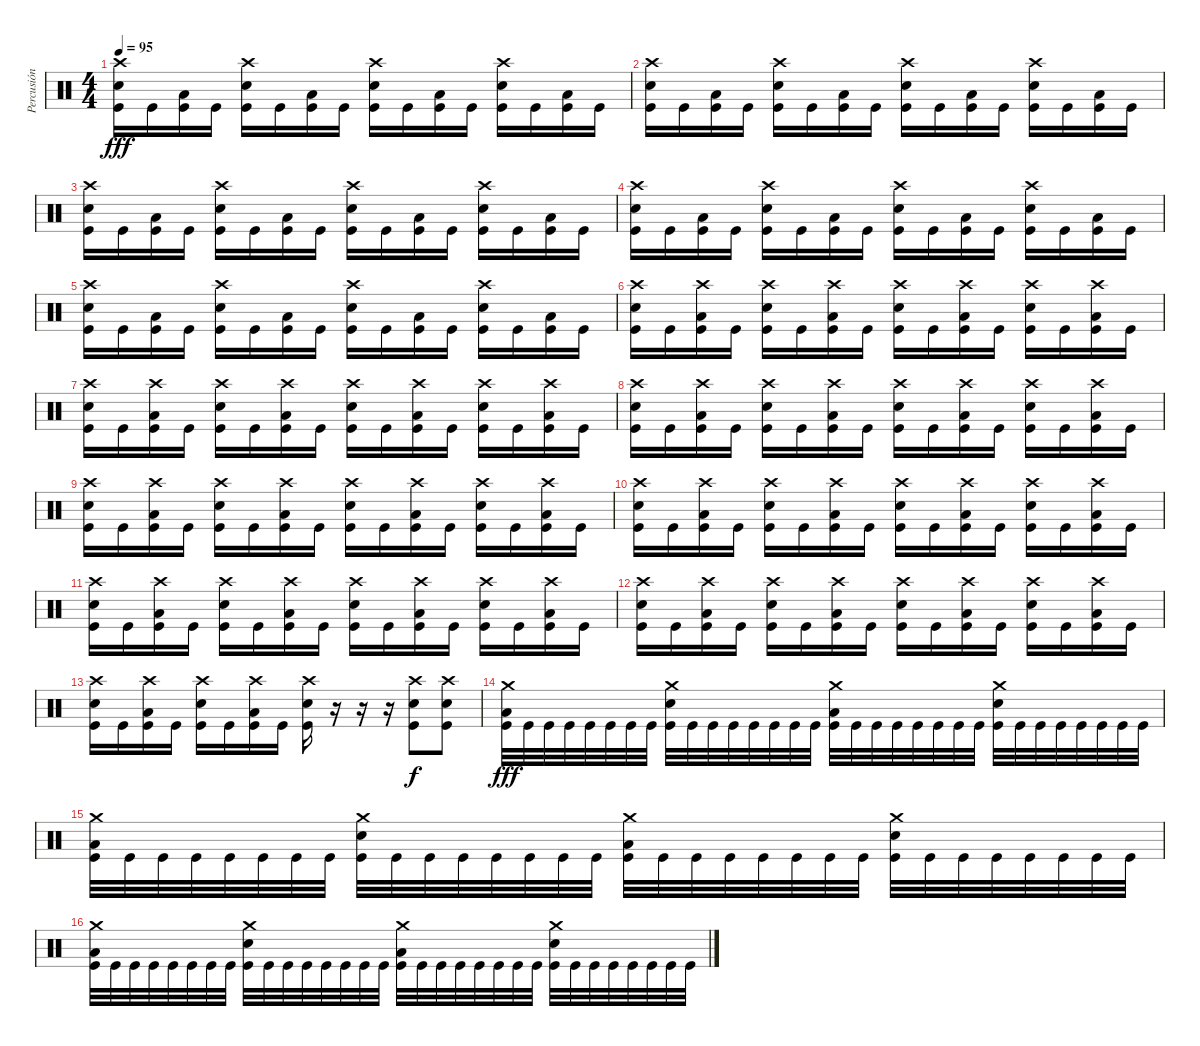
\track ("Percusión" "Percusión") {instrument percussion}
\staff {score}
\articulation defaults
\ts (4 4)
\tempo 95
\clef neutral
\ks c
("Crash high (hit)" "Snare (hit) 2" "Kick (hit)").16{dy fff} "Kick (hit)".16 ("Low Floor Tom (hit)" "Kick (hit)").16 "Kick (hit)".16 ("Crash high (hit)" "Snare (hit) 2" "Kick (hit)").16 "Kick (hit)".16 ("Low Floor Tom (hit)" "Kick (hit)").16 "Kick (hit)".16 ("Crash high (hit)" "Snare (hit) 2" "Kick (hit)").16 "Kick (hit)".16 ("Low Floor Tom (hit)" "Kick (hit)").16 "Kick (hit)".16 ("Crash high (hit)" "Snare (hit) 2" "Kick (hit)").16 "Kick (hit)".16 ("Low Floor Tom (hit)" "Kick (hit)").16 "Kick (hit)".16 |
("Crash high (hit)" "Snare (hit) 2" "Kick (hit)").16 "Kick (hit)".16 ("Low Floor Tom (hit)" "Kick (hit)").16 "Kick (hit)".16 ("Crash high (hit)" "Snare (hit) 2" "Kick (hit)").16 "Kick (hit)".16 ("Low Floor Tom (hit)" "Kick (hit)").16 "Kick (hit)".16 ("Crash high (hit)" "Snare (hit) 2" "Kick (hit)").16 "Kick (hit)".16 ("Low Floor Tom (hit)" "Kick (hit)").16 "Kick (hit)".16 ("Crash high (hit)" "Snare (hit) 2" "Kick (hit)").16 "Kick (hit)".16 ("Low Floor Tom (hit)" "Kick (hit)").16 "Kick (hit)".16 |
("Crash high (hit)" "Snare (hit) 2" "Kick (hit)").16 "Kick (hit)".16 ("Low Floor Tom (hit)" "Kick (hit)").16 "Kick (hit)".16 ("Crash high (hit)" "Snare (hit) 2" "Kick (hit)").16 "Kick (hit)".16 ("Low Floor Tom (hit)" "Kick (hit)").16 "Kick (hit)".16 ("Crash high (hit)" "Snare (hit) 2" "Kick (hit)").16 "Kick (hit)".16 ("Low Floor Tom (hit)" "Kick (hit)").16 "Kick (hit)".16 ("Crash high (hit)" "Snare (hit) 2" "Kick (hit)").16 "Kick (hit)".16 ("Low Floor Tom (hit)" "Kick (hit)").16 "Kick (hit)".16 |
("Crash high (hit)" "Snare (hit) 2" "Kick (hit)").16 "Kick (hit)".16 ("Low Floor Tom (hit)" "Kick (hit)").16 "Kick (hit)".16 ("Crash high (hit)" "Snare (hit) 2" "Kick (hit)").16 "Kick (hit)".16 ("Low Floor Tom (hit)" "Kick (hit)").16 "Kick (hit)".16 ("Crash high (hit)" "Snare (hit) 2" "Kick (hit)").16 "Kick (hit)".16 ("Low Floor Tom (hit)" "Kick (hit)").16 "Kick (hit)".16 ("Crash high (hit)" "Snare (hit) 2" "Kick (hit)").16 "Kick (hit)".16 ("Low Floor Tom (hit)" "Kick (hit)").16 "Kick (hit)".16 |
("Crash high (hit)" "Snare (hit) 2" "Kick (hit)").16 "Kick (hit)".16 ("Low Floor Tom (hit)" "Kick (hit)").16 "Kick (hit)".16 ("Crash high (hit)" "Snare (hit) 2" "Kick (hit)").16 "Kick (hit)".16 ("Low Floor Tom (hit)" "Kick (hit)").16 "Kick (hit)".16 ("Crash high (hit)" "Snare (hit) 2" "Kick (hit)").16 "Kick (hit)".16 ("Low Floor Tom (hit)" "Kick (hit)").16 "Kick (hit)".16 ("Crash high (hit)" "Snare (hit) 2" "Kick (hit)").16 "Kick (hit)".16 ("Low Floor Tom (hit)" "Kick (hit)").16 "Kick (hit)".16 |
("Crash high (hit)" "Snare (hit) 2" "Kick (hit)").16 "Kick (hit)".16 ("Crash high (hit)" "Low Floor Tom (hit)" "Kick (hit)").16 "Kick (hit)".16 ("Crash high (hit)" "Snare (hit) 2" "Kick (hit)").16 "Kick (hit)".16 ("Crash high (hit)" "Low Floor Tom (hit)" "Kick (hit)").16 "Kick (hit)".16 ("Crash high (hit)" "Snare (hit) 2" "Kick (hit)").16 "Kick (hit)".16 ("Crash high (hit)" "Low Floor Tom (hit)" "Kick (hit)").16 "Kick (hit)".16 ("Crash high (hit)" "Snare (hit) 2" "Kick (hit)").16 "Kick (hit)".16 ("Crash high (hit)" "Low Floor Tom (hit)" "Kick (hit)").16 "Kick (hit)".16 |
("Crash high (hit)" "Snare (hit) 2" "Kick (hit)").16 "Kick (hit)".16 ("Crash high (hit)" "Low Floor Tom (hit)" "Kick (hit)").16 "Kick (hit)".16 ("Crash high (hit)" "Snare (hit) 2" "Kick (hit)").16 "Kick (hit)".16 ("Crash high (hit)" "Low Floor Tom (hit)" "Kick (hit)").16 "Kick (hit)".16 ("Crash high (hit)" "Snare (hit) 2" "Kick (hit)").16 "Kick (hit)".16 ("Crash high (hit)" "Low Floor Tom (hit)" "Kick (hit)").16 "Kick (hit)".16 ("Crash high (hit)" "Snare (hit) 2" "Kick (hit)").16 "Kick (hit)".16 ("Crash high (hit)" "Low Floor Tom (hit)" "Kick (hit)").16 "Kick (hit)".16 |
("Crash high (hit)" "Snare (hit) 2" "Kick (hit)").16 "Kick (hit)".16 ("Crash high (hit)" "Low Floor Tom (hit)" "Kick (hit)").16 "Kick (hit)".16 ("Crash high (hit)" "Snare (hit) 2" "Kick (hit)").16 "Kick (hit)".16 ("Crash high (hit)" "Low Floor Tom (hit)" "Kick (hit)").16 "Kick (hit)".16 ("Crash high (hit)" "Snare (hit) 2" "Kick (hit)").16 "Kick (hit)".16 ("Crash high (hit)" "Low Floor Tom (hit)" "Kick (hit)").16 "Kick (hit)".16 ("Crash high (hit)" "Snare (hit) 2" "Kick (hit)").16 "Kick (hit)".16 ("Crash high (hit)" "Low Floor Tom (hit)" "Kick (hit)").16 "Kick (hit)".16 |
("Crash high (hit)" "Snare (hit) 2" "Kick (hit)").16 "Kick (hit)".16 ("Crash high (hit)" "Low Floor Tom (hit)" "Kick (hit)").16 "Kick (hit)".16 ("Crash high (hit)" "Snare (hit) 2" "Kick (hit)").16 "Kick (hit)".16 ("Crash high (hit)" "Low Floor Tom (hit)" "Kick (hit)").16 "Kick (hit)".16 ("Crash high (hit)" "Snare (hit) 2" "Kick (hit)").16 "Kick (hit)".16 ("Crash high (hit)" "Low Floor Tom (hit)" "Kick (hit)").16 "Kick (hit)".16 ("Crash high (hit)" "Snare (hit) 2" "Kick (hit)").16 "Kick (hit)".16 ("Crash high (hit)" "Low Floor Tom (hit)" "Kick (hit)").16 "Kick (hit)".16 |
("Crash high (hit)" "Snare (hit) 2" "Kick (hit)").16 "Kick (hit)".16 ("Crash high (hit)" "Low Floor Tom (hit)" "Kick (hit)").16 "Kick (hit)".16 ("Crash high (hit)" "Snare (hit) 2" "Kick (hit)").16 "Kick (hit)".16 ("Crash high (hit)" "Low Floor Tom (hit)" "Kick (hit)").16 "Kick (hit)".16 ("Crash high (hit)" "Snare (hit) 2" "Kick (hit)").16 "Kick (hit)".16 ("Crash high (hit)" "Low Floor Tom (hit)" "Kick (hit)").16 "Kick (hit)".16 ("Crash high (hit)" "Snare (hit) 2" "Kick (hit)").16 "Kick (hit)".16 ("Crash high (hit)" "Low Floor Tom (hit)" "Kick (hit)").16 "Kick (hit)".16 |
("Crash high (hit)" "Snare (hit) 2" "Kick (hit)").16 "Kick (hit)".16 ("Crash high (hit)" "Low Floor Tom (hit)" "Kick (hit)").16 "Kick (hit)".16 ("Crash high (hit)" "Snare (hit) 2" "Kick (hit)").16 "Kick (hit)".16 ("Crash high (hit)" "Low Floor Tom (hit)" "Kick (hit)").16 "Kick (hit)".16 ("Crash high (hit)" "Snare (hit) 2" "Kick (hit)").16 "Kick (hit)".16 ("Crash high (hit)" "Low Floor Tom (hit)" "Kick (hit)").16 "Kick (hit)".16 ("Crash high (hit)" "Snare (hit) 2" "Kick (hit)").16 "Kick (hit)".16 ("Crash high (hit)" "Low Floor Tom (hit)" "Kick (hit)").16 "Kick (hit)".16 |
("Crash high (hit)" "Snare (hit) 2" "Kick (hit)").16 "Kick (hit)".16 ("Crash high (hit)" "Low Floor Tom (hit)" "Kick (hit)").16 "Kick (hit)".16 ("Crash high (hit)" "Snare (hit) 2" "Kick (hit)").16 "Kick (hit)".16 ("Crash high (hit)" "Low Floor Tom (hit)" "Kick (hit)").16 "Kick (hit)".16 ("Crash high (hit)" "Snare (hit) 2" "Kick (hit)").16 "Kick (hit)".16 ("Crash high (hit)" "Low Floor Tom (hit)" "Kick (hit)").16 "Kick (hit)".16 ("Crash high (hit)" "Snare (hit) 2" "Kick (hit)").16 "Kick (hit)".16 ("Crash high (hit)" "Low Floor Tom (hit)" "Kick (hit)").16 "Kick (hit)".16 |
("Crash high (hit)" "Snare (hit) 2" "Kick (hit)").16 "Kick (hit)".16 ("Crash high (hit)" "Low Floor Tom (hit)" "Kick (hit)").16 "Kick (hit)".16 ("Crash high (hit)" "Snare (hit) 2" "Kick (hit)").16 "Kick (hit)".16 ("Crash high (hit)" "Low Floor Tom (hit)" "Kick (hit)").16 "Kick (hit)".16 ("Crash high (hit)" "Snare (hit) 2" "Kick (hit)").16 r.16 r.16 r.16 ("Crash high (hit)" "Snare (hit) 2" "Kick (hit)").8{dy f} ("Crash high (hit)" "Snare (hit) 2" "Kick (hit)").8 |
("Crash medium (hit)" "Low Floor Tom (hit)" "Kick (hit)").32{dy fff} "Kick (hit)".32 "Kick (hit)".32 "Kick (hit)".32 "Kick (hit)".32 "Kick (hit)".32 "Kick (hit)".32 "Kick (hit)".32 ("Crash medium (hit)" "Snare (hit) 2" "Kick (hit)").32 "Kick (hit)".32 "Kick (hit)".32 "Kick (hit)".32 "Kick (hit)".32 "Kick (hit)".32 "Kick (hit)".32 "Kick (hit)".32 ("Crash medium (hit)" "Low Floor Tom (hit)" "Kick (hit)").32 "Kick (hit)".32 "Kick (hit)".32 "Kick (hit)".32 "Kick (hit)".32 "Kick (hit)".32 "Kick (hit)".32 "Kick (hit)".32 ("Crash medium (hit)" "Snare (hit) 2" "Kick (hit)").32 "Kick (hit)".32 "Kick (hit)".32 "Kick (hit)".32 "Kick (hit)".32 "Kick (hit)".32 "Kick (hit)".32 "Kick (hit)".32 |
("Crash medium (hit)" "Low Floor Tom (hit)" "Kick (hit)").32 "Kick (hit)".32 "Kick (hit)".32 "Kick (hit)".32 "Kick (hit)".32 "Kick (hit)".32 "Kick (hit)".32 "Kick (hit)".32 ("Crash medium (hit)" "Snare (hit) 2" "Kick (hit)").32 "Kick (hit)".32 "Kick (hit)".32 "Kick (hit)".32 "Kick (hit)".32 "Kick (hit)".32 "Kick (hit)".32 "Kick (hit)".32 ("Crash medium (hit)" "Low Floor Tom (hit)" "Kick (hit)").32 "Kick (hit)".32 "Kick (hit)".32 "Kick (hit)".32 "Kick (hit)".32 "Kick (hit)".32 "Kick (hit)".32 "Kick (hit)".32 ("Crash medium (hit)" "Snare (hit) 2" "Kick (hit)").32 "Kick (hit)".32 "Kick (hit)".32 "Kick (hit)".32 "Kick (hit)".32 "Kick (hit)".32 "Kick (hit)".32 "Kick (hit)".32 |
("Crash medium (hit)" "Low Floor Tom (hit)" "Kick (hit)").32 "Kick (hit)".32 "Kick (hit)".32 "Kick (hit)".32 "Kick (hit)".32 "Kick (hit)".32 "Kick (hit)".32 "Kick (hit)".32 ("Crash medium (hit)" "Snare (hit) 2" "Kick (hit)").32 "Kick (hit)".32 "Kick (hit)".32 "Kick (hit)".32 "Kick (hit)".32 "Kick (hit)".32 "Kick (hit)".32 "Kick (hit)".32 ("Crash medium (hit)" "Low Floor Tom (hit)" "Kick (hit)").32 "Kick (hit)".32 "Kick (hit)".32 "Kick (hit)".32 "Kick (hit)".32 "Kick (hit)".32 "Kick (hit)".32 "Kick (hit)".32 ("Crash medium (hit)" "Snare (hit) 2" "Kick (hit)").32 "Kick (hit)".32 "Kick (hit)".32 "Kick (hit)".32 "Kick (hit)".32 "Kick (hit)".32 "Kick (hit)".32 "Kick (hit)".32
